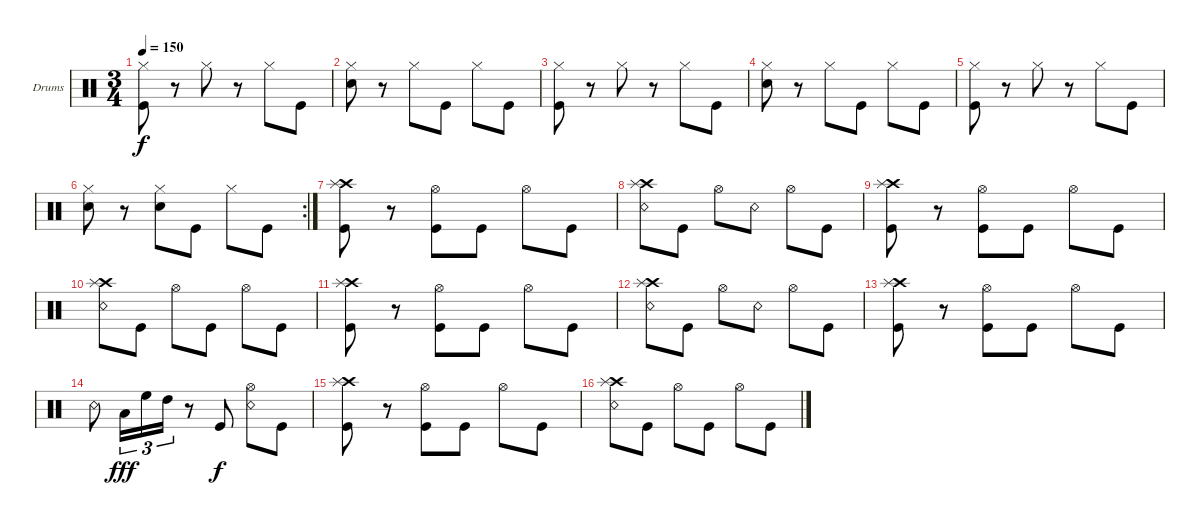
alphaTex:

\defaultSystemsLayout 4
\bracketExtendMode groupsimilarinstruments
\firstSystemTrackNameOrientation horizontal
\otherSystemsTrackNameOrientation horizontal
\track ("Scott" "Drums") {mute instrument percussion}
\staff {score}
\articulation defaults
\ts (3 4)
\tempo 150
\clef neutral
\scale
0.333333
\ks c
("Hi-Hat (closed)" "Kick (hit)").8{dy f} r.8 "Hi-Hat (closed)".8 r.8 "Hi-Hat (closed)".8 "Kick (hit)".8 |
\scale
0.333333 ("Snare (hit) 2" "Hi-Hat (closed)").8 r.8 "Hi-Hat (closed)".8 "Kick (hit)".8 "Hi-Hat (closed)".8 "Kick (hit)".8 |
\scale
0.333333 ("Hi-Hat (closed)" "Kick (hit)").8 r.8 "Hi-Hat (closed)".8 r.8 "Hi-Hat (closed)".8 "Kick (hit)".8 |
\scale
0.333333 ("Snare (hit) 2" "Hi-Hat (closed)").8 r.8 "Hi-Hat (closed)".8 "Kick (hit)".8 "Hi-Hat (closed)".8 "Kick (hit)".8 |
\scale
0.333333 ("Hi-Hat (closed)" "Kick (hit)").8 r.8 "Hi-Hat (closed)".8 r.8 "Hi-Hat (closed)".8 "Kick (hit)".8 |
\rc 2
\scale
0.355932 ("Hi-Hat (closed)" "Snare (hit) 2").8 r.8 ("Snare (hit) 2" "Hi-Hat (closed)").8 "Kick (hit)".8 "Hi-Hat (closed)".8 "Kick (hit)".8 |
\scale
0.322034 ("Kick (hit)" "Crash high (hit)" "Splash (hit)").8 r.8 ("Kick (hit)" "Hi-Hat (open)").8 "Kick (hit)".8 "Hi-Hat (open)".8 "Kick (hit)".8 |
\scale
0.322034 ("Snare (rim shot)" "Crash high (hit)" "Splash (hit)").8 "Kick (hit)".8 "Hi-Hat (open)".8 "Snare (rim shot)".8 "Hi-Hat (open)".8 "Kick (hit)".8 |
\scale
0.333333 ("Kick (hit)" "Crash high (hit)" "Splash (hit)").8 r.8 ("Kick (hit)" "Hi-Hat (open)").8 "Kick (hit)".8 "Hi-Hat (open)".8 "Kick (hit)".8 |
\scale
0.333333 ("Snare (rim shot)" "Crash high (hit)" "Splash (hit)").8 "Kick (hit)".8 "Hi-Hat (open)".8 "Kick (hit)".8 "Hi-Hat (open)".8 "Kick (hit)".8 |
\scale
0.333333 ("Kick (hit)" "Crash high (hit)" "Splash (hit)").8 r.8 ("Kick (hit)" "Hi-Hat (open)").8 "Kick (hit)".8 "Hi-Hat (open)".8 "Kick (hit)".8 |
\scale
0.333333 ("Snare (rim shot)" "Crash high (hit)" "Splash (hit)").8 "Kick (hit)".8 "Hi-Hat (open)".8 "Snare (rim shot)".8 "Hi-Hat (open)".8 "Kick (hit)".8 |
\scale
0.333333 ("Kick (hit)" "Crash high (hit)" "Splash (hit)").8 r.8 ("Kick (hit)" "Hi-Hat (open)").8 "Kick (hit)".8 "Hi-Hat (open)".8 "Kick (hit)".8 |
\scale
0.333333 "Snare (rim shot)".8 "Low Tom (hit)".16{tu (3 2) dy fff} "High Floor Tom (hit)".16{tu (3 2)} "High Tom (hit)".16{tu (3 2)} r.8 "Kick (hit)".8{dy f} ("Snare (rim shot)" "Hi-Hat (open)").8 "Kick (hit)".8 |
\scale
0.333333 ("Kick (hit)" "Crash high (hit)" "Splash (hit)").8 r.8 ("Kick (hit)" "Hi-Hat (open)").8 "Kick (hit)".8 "Hi-Hat (open)".8 "Kick (hit)".8 |
\scale
0.333333 ("Snare (rim shot)" "Crash high (hit)" "Splash (hit)").8 "Kick (hit)".8 "Hi-Hat (open)".8 "Kick (hit)".8 "Hi-Hat (open)".8 "Kick (hit)".8
